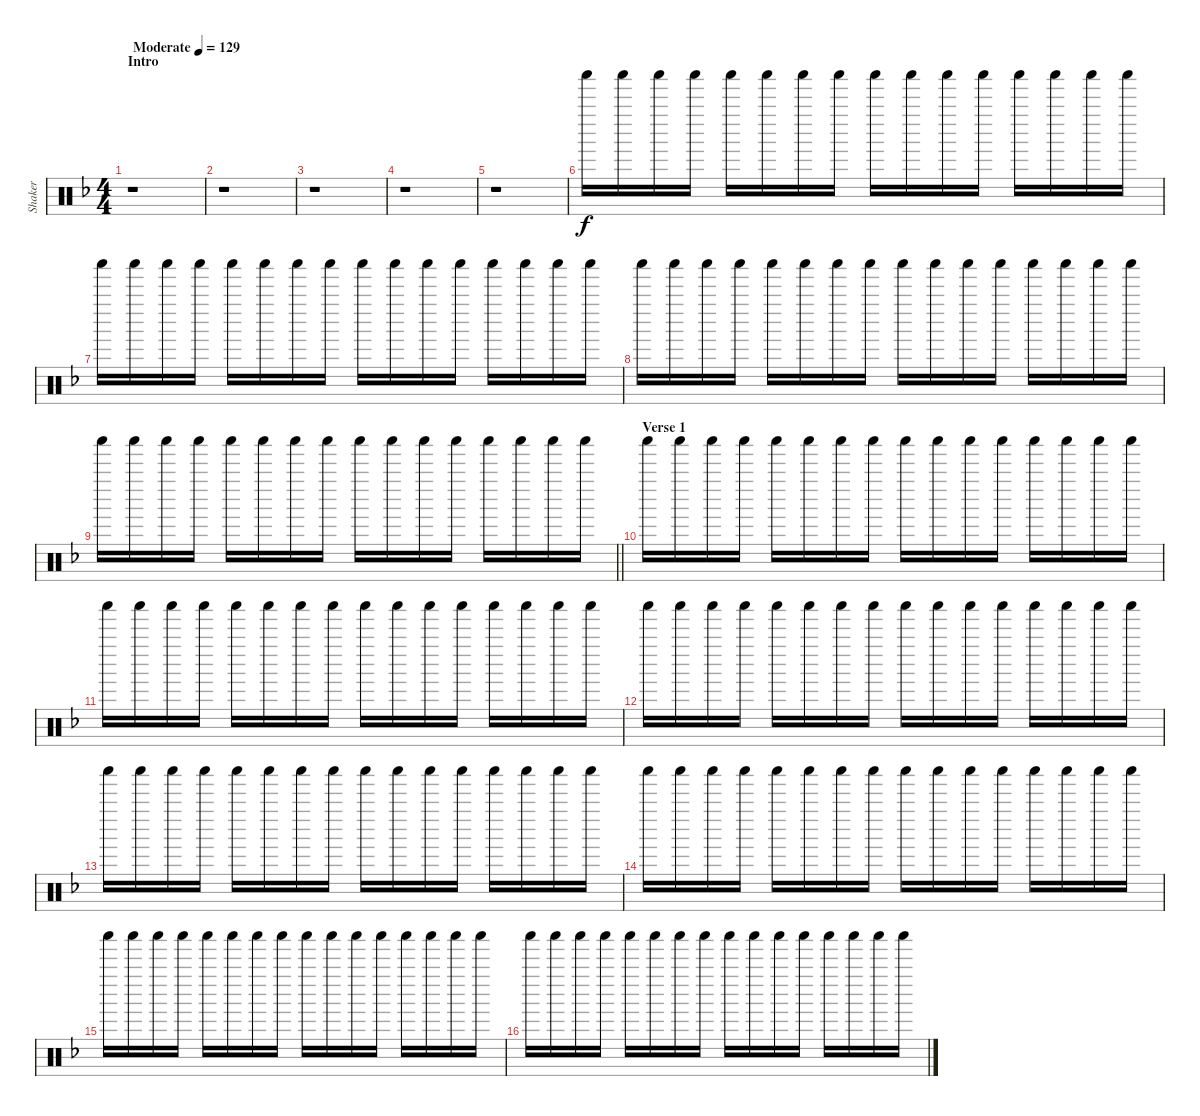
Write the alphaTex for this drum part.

\track ("Shaker" "Shaker") {instrument percussion}
\staff {score}
\articulation defaults
\ts (4 4)
\section ("" "Intro")
\tempo (129 "Moderate")
\clef neutral
\ks dminor
r.1{dy f} |
r.1 |
r.1 |
r.1 |
r.1 |
"Shaker (hit)".16{volume 3} "Shaker (hit)".16 "Shaker (hit)".16 "Shaker (hit)".16 "Shaker (hit)".16 "Shaker (hit)".16 "Shaker (hit)".16 "Shaker (hit)".16 "Shaker (hit)".16 "Shaker (hit)".16 "Shaker (hit)".16 "Shaker (hit)".16 "Shaker (hit)".16 "Shaker (hit)".16 "Shaker (hit)".16 "Shaker (hit)".16 |
"Shaker (hit)".16 "Shaker (hit)".16 "Shaker (hit)".16 "Shaker (hit)".16 "Shaker (hit)".16 "Shaker (hit)".16 "Shaker (hit)".16 "Shaker (hit)".16 "Shaker (hit)".16 "Shaker (hit)".16 "Shaker (hit)".16 "Shaker (hit)".16 "Shaker (hit)".16 "Shaker (hit)".16 "Shaker (hit)".16 "Shaker (hit)".16 |
"Shaker (hit)".16 "Shaker (hit)".16 "Shaker (hit)".16 "Shaker (hit)".16 "Shaker (hit)".16 "Shaker (hit)".16 "Shaker (hit)".16 "Shaker (hit)".16 "Shaker (hit)".16 "Shaker (hit)".16 "Shaker (hit)".16 "Shaker (hit)".16 "Shaker (hit)".16 "Shaker (hit)".16 "Shaker (hit)".16 "Shaker (hit)".16 |
\barLineRight lightlight "Shaker (hit)".16 "Shaker (hit)".16 "Shaker (hit)".16 "Shaker (hit)".16 "Shaker (hit)".16 "Shaker (hit)".16 "Shaker (hit)".16 "Shaker (hit)".16 "Shaker (hit)".16 "Shaker (hit)".16 "Shaker (hit)".16 "Shaker (hit)".16 "Shaker (hit)".16 "Shaker (hit)".16 "Shaker (hit)".16 "Shaker (hit)".16
|
\section ("" "Verse 1")
"Shaker (hit)".16 "Shaker (hit)".16 "Shaker (hit)".16 "Shaker (hit)".16 "Shaker (hit)".16 "Shaker (hit)".16 "Shaker (hit)".16 "Shaker (hit)".16 "Shaker (hit)".16 "Shaker (hit)".16 "Shaker (hit)".16 "Shaker (hit)".16 "Shaker (hit)".16 "Shaker (hit)".16 "Shaker (hit)".16 "Shaker (hit)".16 |
"Shaker (hit)".16 "Shaker (hit)".16 "Shaker (hit)".16 "Shaker (hit)".16 "Shaker (hit)".16 "Shaker (hit)".16 "Shaker (hit)".16 "Shaker (hit)".16 "Shaker (hit)".16 "Shaker (hit)".16 "Shaker (hit)".16 "Shaker (hit)".16 "Shaker (hit)".16 "Shaker (hit)".16 "Shaker (hit)".16 "Shaker (hit)".16 |
"Shaker (hit)".16 "Shaker (hit)".16 "Shaker (hit)".16 "Shaker (hit)".16 "Shaker (hit)".16 "Shaker (hit)".16 "Shaker (hit)".16 "Shaker (hit)".16 "Shaker (hit)".16 "Shaker (hit)".16 "Shaker (hit)".16 "Shaker (hit)".16 "Shaker (hit)".16 "Shaker (hit)".16 "Shaker (hit)".16 "Shaker (hit)".16 |
"Shaker (hit)".16 "Shaker (hit)".16 "Shaker (hit)".16 "Shaker (hit)".16 "Shaker (hit)".16 "Shaker (hit)".16 "Shaker (hit)".16 "Shaker (hit)".16 "Shaker (hit)".16 "Shaker (hit)".16 "Shaker (hit)".16 "Shaker (hit)".16 "Shaker (hit)".16 "Shaker (hit)".16 "Shaker (hit)".16 "Shaker (hit)".16 |
"Shaker (hit)".16 "Shaker (hit)".16 "Shaker (hit)".16 "Shaker (hit)".16 "Shaker (hit)".16 "Shaker (hit)".16 "Shaker (hit)".16 "Shaker (hit)".16 "Shaker (hit)".16 "Shaker (hit)".16 "Shaker (hit)".16 "Shaker (hit)".16 "Shaker (hit)".16 "Shaker (hit)".16 "Shaker (hit)".16 "Shaker (hit)".16 |
"Shaker (hit)".16 "Shaker (hit)".16 "Shaker (hit)".16 "Shaker (hit)".16 "Shaker (hit)".16 "Shaker (hit)".16 "Shaker (hit)".16 "Shaker (hit)".16 "Shaker (hit)".16 "Shaker (hit)".16 "Shaker (hit)".16 "Shaker (hit)".16 "Shaker (hit)".16 "Shaker (hit)".16 "Shaker (hit)".16 "Shaker (hit)".16 |
"Shaker (hit)".16 "Shaker (hit)".16 "Shaker (hit)".16 "Shaker (hit)".16 "Shaker (hit)".16 "Shaker (hit)".16 "Shaker (hit)".16 "Shaker (hit)".16 "Shaker (hit)".16 "Shaker (hit)".16 "Shaker (hit)".16 "Shaker (hit)".16 "Shaker (hit)".16 "Shaker (hit)".16 "Shaker (hit)".16 "Shaker (hit)".16
